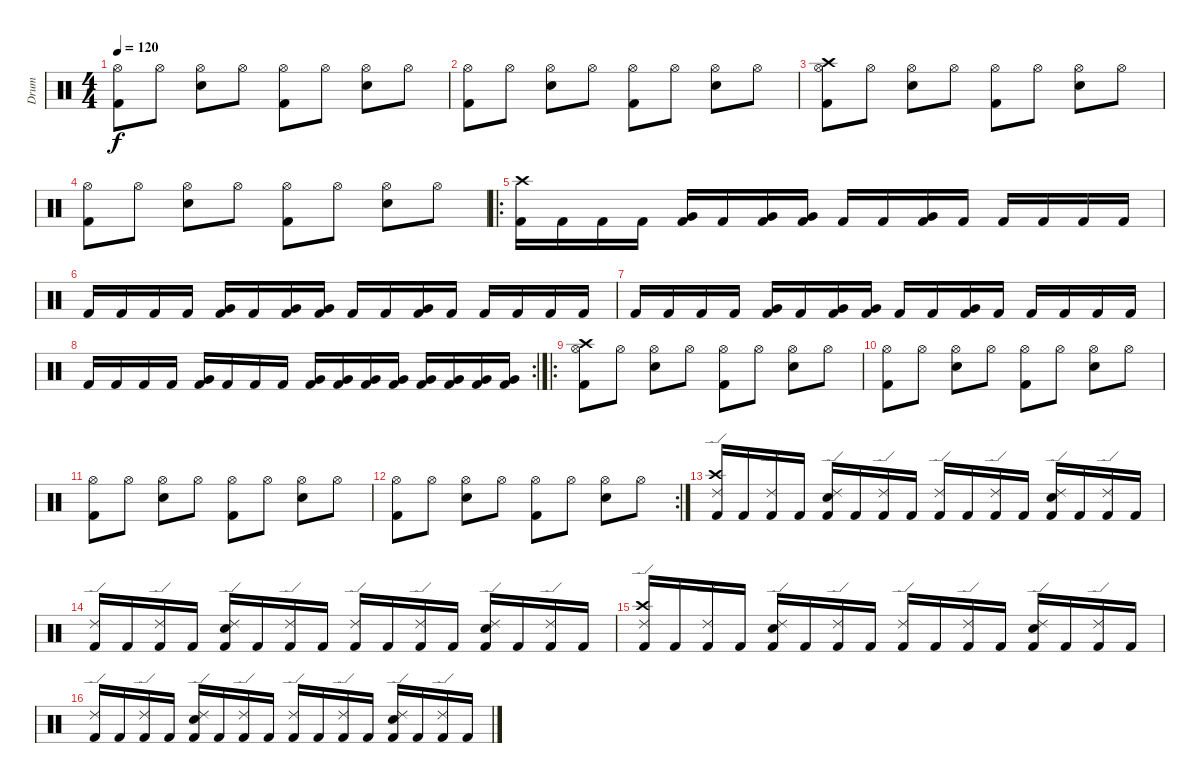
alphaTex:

\track ("Drum" "Drum") {instrument percussion}
\staff {score}
\articulation defaults
\ts (4 4)
\tempo 120
\clef neutral
\ks c
("Hi-Hat (open)" "Kick (hit) 2").8{dy f} "Hi-Hat (open)".8 ("Hi-Hat (open)" "Snare (hit) 2").8 "Hi-Hat (open)".8 ("Hi-Hat (open)" "Kick (hit) 2").8 "Hi-Hat (open)".8 ("Hi-Hat (open)" "Snare (hit) 2").8 "Hi-Hat (open)".8 |
("Hi-Hat (open)" "Kick (hit) 2").8 "Hi-Hat (open)".8 ("Hi-Hat (open)" "Snare (hit) 2").8 "Hi-Hat (open)".8 ("Hi-Hat (open)" "Kick (hit) 2").8 "Hi-Hat (open)".8 ("Hi-Hat (open)" "Snare (hit) 2").8 "Hi-Hat (open)".8 |
("Hi-Hat (open)" "Crash high (hit)" "Kick (hit) 2").8 "Hi-Hat (open)".8 ("Hi-Hat (open)" "Snare (hit) 2").8 "Hi-Hat (open)".8 ("Hi-Hat (open)" "Kick (hit) 2").8 "Hi-Hat (open)".8 ("Hi-Hat (open)" "Snare (hit) 2").8 "Hi-Hat (open)".8 |
("Hi-Hat (open)" "Kick (hit) 2").8 "Hi-Hat (open)".8 ("Hi-Hat (open)" "Snare (hit) 2").8 "Hi-Hat (open)".8 ("Hi-Hat (open)" "Kick (hit) 2").8 "Hi-Hat (open)".8 ("Hi-Hat (open)" "Snare (hit) 2").8 "Hi-Hat (open)".8 |
\ro
("Crash high (hit)" "Kick (hit) 2").16 "Kick (hit) 2".16 "Kick (hit) 2".16 "Kick (hit) 2".16 ("Very Low Tom (hit)" "Kick (hit) 2").16 "Kick (hit) 2".16 ("Very Low Tom (hit)" "Kick (hit) 2").16 ("Very Low Tom (hit)" "Kick (hit) 2").16 "Kick (hit) 2".16 "Kick (hit) 2".16 ("Very Low Tom (hit)" "Kick (hit) 2").16 "Kick (hit) 2".16 "Kick (hit) 2".16 "Kick (hit) 2".16 "Kick (hit) 2".16 "Kick (hit) 2".16 |
"Kick (hit) 2".16 "Kick (hit) 2".16 "Kick (hit) 2".16 "Kick (hit) 2".16 ("Very Low Tom (hit)" "Kick (hit) 2").16 "Kick (hit) 2".16 ("Very Low Tom (hit)" "Kick (hit) 2").16 ("Very Low Tom (hit)" "Kick (hit) 2").16 "Kick (hit) 2".16 "Kick (hit) 2".16 ("Very Low Tom (hit)" "Kick (hit) 2").16 "Kick (hit) 2".16 "Kick (hit) 2".16 "Kick (hit) 2".16 "Kick (hit) 2".16 "Kick (hit) 2".16 |
"Kick (hit) 2".16 "Kick (hit) 2".16 "Kick (hit) 2".16 "Kick (hit) 2".16 ("Very Low Tom (hit)" "Kick (hit) 2").16 "Kick (hit) 2".16 ("Very Low Tom (hit)" "Kick (hit) 2").16 ("Very Low Tom (hit)" "Kick (hit) 2").16 "Kick (hit) 2".16 "Kick (hit) 2".16 ("Very Low Tom (hit)" "Kick (hit) 2").16 "Kick (hit) 2".16 "Kick (hit) 2".16 "Kick (hit) 2".16 "Kick (hit) 2".16 "Kick (hit) 2".16 |
\rc 2 "Kick (hit) 2".16 "Kick (hit) 2".16 "Kick (hit) 2".16 "Kick (hit) 2".16
("Very Low Tom (hit)" "Kick (hit) 2").16 "Kick (hit) 2".16 "Kick (hit) 2".16 "Kick (hit) 2".16 ("Very Low Tom (hit)" "Kick (hit) 2").16 ("Very Low Tom (hit)" "Kick (hit) 2").16 ("Very Low Tom (hit)" "Kick (hit) 2").16 ("Very Low Tom (hit)" "Kick (hit) 2").16 ("Very Low Tom (hit)" "Kick (hit) 2").16 ("Very Low Tom (hit)" "Kick (hit) 2").16 ("Very Low Tom (hit)" "Kick (hit) 2").16 ("Very Low Tom (hit)" "Kick (hit) 2").16 |
\ro
("Hi-Hat (open)" "Crash high (hit)" "Kick (hit) 2").8 "Hi-Hat (open)".8 ("Hi-Hat (open)" "Snare (hit) 2").8 "Hi-Hat (open)".8 ("Hi-Hat (open)" "Kick (hit) 2").8 "Hi-Hat (open)".8 ("Hi-Hat (open)" "Snare (hit) 2").8 "Hi-Hat (open)".8 |
("Hi-Hat (open)" "Kick (hit) 2").8 "Hi-Hat (open)".8 ("Hi-Hat (open)" "Snare (hit) 2").8 "Hi-Hat (open)".8 ("Hi-Hat (open)" "Kick (hit) 2").8 "Hi-Hat (open)".8 ("Hi-Hat (open)" "Snare (hit) 2").8 "Hi-Hat (open)".8 |
("Hi-Hat (open)" "Kick (hit) 2").8 "Hi-Hat (open)".8 ("Hi-Hat (open)" "Snare (hit) 2").8 "Hi-Hat (open)".8 ("Hi-Hat (open)" "Kick (hit) 2").8 "Hi-Hat (open)".8 ("Hi-Hat (open)" "Snare (hit) 2").8 "Hi-Hat (open)".8 |
\rc 2
("Hi-Hat (open)" "Kick (hit) 2").8 "Hi-Hat (open)".8 ("Hi-Hat (open)" "Snare (hit) 2").8 "Hi-Hat (open)".8 ("Hi-Hat (open)" "Kick (hit) 2").8 "Hi-Hat (open)".8 ("Hi-Hat (open)" "Snare (hit) 2").8 "Hi-Hat (open)".8 |
("Ride (edge) 2" "Crash high (hit)" "Kick (hit) 2").16 "Kick (hit) 2".16 ("Ride (edge) 2" "Kick (hit) 2").16 "Kick (hit) 2".16 ("Ride (edge) 2" "Snare (hit) 2" "Kick (hit) 2").16 "Kick (hit) 2".16 ("Ride (edge) 2" "Kick (hit) 2").16 "Kick (hit) 2".16 ("Ride (edge) 2" "Kick (hit) 2").16 "Kick (hit) 2".16 ("Ride (edge) 2" "Kick (hit) 2").16 "Kick (hit) 2".16 ("Ride (edge) 2" "Snare (hit) 2" "Kick (hit) 2").16 "Kick (hit) 2".16 ("Ride (edge) 2" "Kick (hit) 2").16 "Kick (hit) 2".16 |
("Ride (edge) 2" "Kick (hit) 2").16 "Kick (hit) 2".16 ("Ride (edge) 2" "Kick (hit) 2").16 "Kick (hit) 2".16 ("Ride (edge) 2" "Snare (hit) 2" "Kick (hit) 2").16 "Kick (hit) 2".16 ("Ride (edge) 2" "Kick (hit) 2").16 "Kick (hit) 2".16 ("Ride (edge) 2" "Kick (hit) 2").16 "Kick (hit) 2".16 ("Ride (edge) 2" "Kick (hit) 2").16 "Kick (hit) 2".16 ("Ride (edge) 2" "Snare (hit) 2" "Kick (hit) 2").16 "Kick (hit) 2".16 ("Ride (edge) 2" "Kick (hit) 2").16 "Kick (hit) 2".16 |
("Ride (edge) 2" "Crash high (hit)" "Kick (hit) 2").16 "Kick (hit) 2".16 ("Ride (edge) 2" "Kick (hit) 2").16 "Kick (hit) 2".16 ("Ride (edge) 2" "Snare (hit) 2" "Kick (hit) 2").16 "Kick (hit) 2".16 ("Ride (edge) 2" "Kick (hit) 2").16 "Kick (hit) 2".16 ("Ride (edge) 2" "Kick (hit) 2").16 "Kick (hit) 2".16 ("Ride (edge) 2" "Kick (hit) 2").16 "Kick (hit) 2".16 ("Ride (edge) 2" "Snare (hit) 2" "Kick (hit) 2").16 "Kick (hit) 2".16 ("Ride (edge) 2" "Kick (hit) 2").16 "Kick (hit) 2".16 |
("Ride (edge) 2" "Kick (hit) 2").16 "Kick (hit) 2".16 ("Ride (edge) 2" "Kick (hit) 2").16 "Kick (hit) 2".16 ("Ride (edge) 2" "Snare (hit) 2" "Kick (hit) 2").16 "Kick (hit) 2".16 ("Ride (edge) 2" "Kick (hit) 2").16 "Kick (hit) 2".16 ("Ride (edge) 2" "Kick (hit) 2").16 "Kick (hit) 2".16 ("Ride (edge) 2" "Kick (hit) 2").16 "Kick (hit) 2".16 ("Ride (edge) 2" "Snare (hit) 2" "Kick (hit) 2").16 "Kick (hit) 2".16 ("Ride (edge) 2" "Kick (hit) 2").16 "Kick (hit) 2".16
